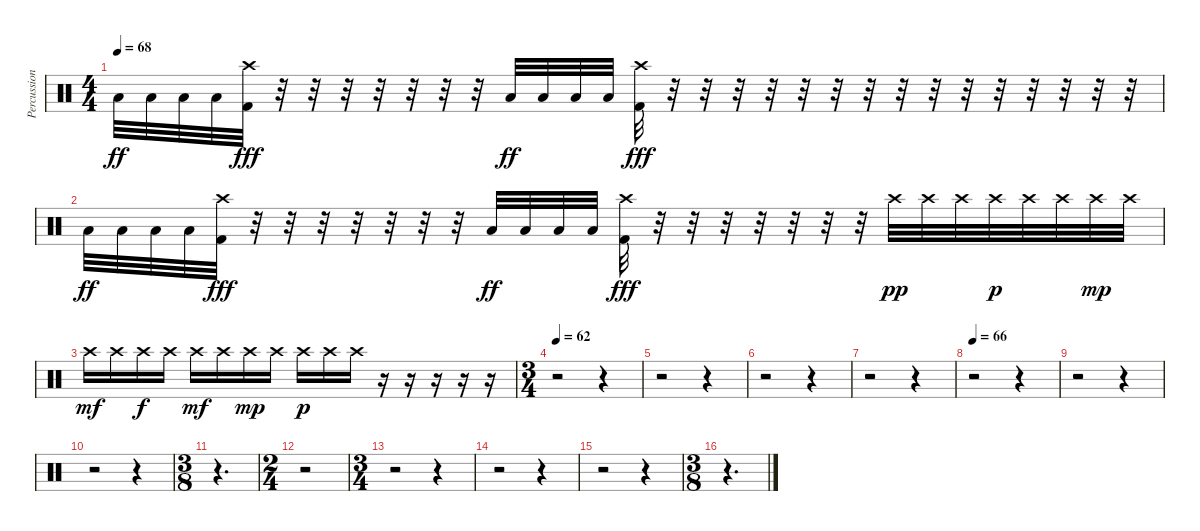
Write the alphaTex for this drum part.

\track ("Percussion" "Percussion") {instrument percussion}
\staff {score}
\articulation defaults
\ts (4 4)
\tempo 68
\clef neutral
\ks c "Low Floor Tom (hit)".32{dy ff} "Low Floor Tom (hit)".32 "Low Floor Tom (hit)".32 "Low Floor Tom (hit)".32
("Crash high (hit)" "Kick (hit) 2").32{dy fff} r.32 r.32 r.32 r.32 r.32 r.32 r.32 "Low Floor Tom (hit)".32{dy ff} "Low Floor Tom (hit)".32 "Low Floor Tom (hit)".32 "Low Floor Tom (hit)".32 ("Crash high (hit)" "Kick (hit) 2").32{dy fff} r.32 r.32 r.32 r.32 r.32 r.32 r.32 r.32 r.32 r.32 r.32 r.32 r.32 r.32 r.32 |
"Low Floor Tom (hit)".32{dy ff} "Low Floor Tom (hit)".32 "Low Floor Tom (hit)".32 "Low Floor Tom (hit)".32 ("Crash high (hit)" "Kick (hit) 2").32{dy fff} r.32 r.32 r.32 r.32 r.32 r.32 r.32 "Low Floor Tom (hit)".32{dy ff} "Low Floor Tom (hit)".32 "Low Floor Tom (hit)".32 "Low Floor Tom (hit)".32 ("Crash high (hit)" "Kick (hit) 2").32{dy fff} r.32 r.32 r.32 r.32 r.32 r.32 r.32 "Crash high (hit)".32{dy pp} "Crash high (hit)".32 "Crash high (hit)".32 "Crash high (hit)".32{dy p} "Crash high (hit)".32 "Crash high (hit)".32 "Crash high (hit)".32{dy mp} "Crash high (hit)".32 |
"Crash high (hit)".16{dy mf} "Crash high (hit)".16 "Crash high (hit)".16{dy f} "Crash high (hit)".16 "Crash high (hit)".16{dy mf} "Crash high (hit)".16 "Crash high (hit)".16{dy mp} "Crash high (hit)".16 "Crash high (hit)".16{dy p} "Crash high (hit)".16 "Crash high (hit)".16 r.16 r.16 r.16 r.16 r.16 |
\ts (3 4)
\tempo 62
r.2 r.4 |
r.2 r.4 |
r.2 r.4 |
r.2 r.4 |
\tempo 66
r.2 r.4 |
r.2 r.4 |
r.2 r.4 |
\ts (3 8)
r.4{d} |
\ts (2 4)
r.2 |
\ts (3 4)
r.2 r.4 |
r.2 r.4 |
r.2 r.4 |
\ts (3 8)
r.4{d}
